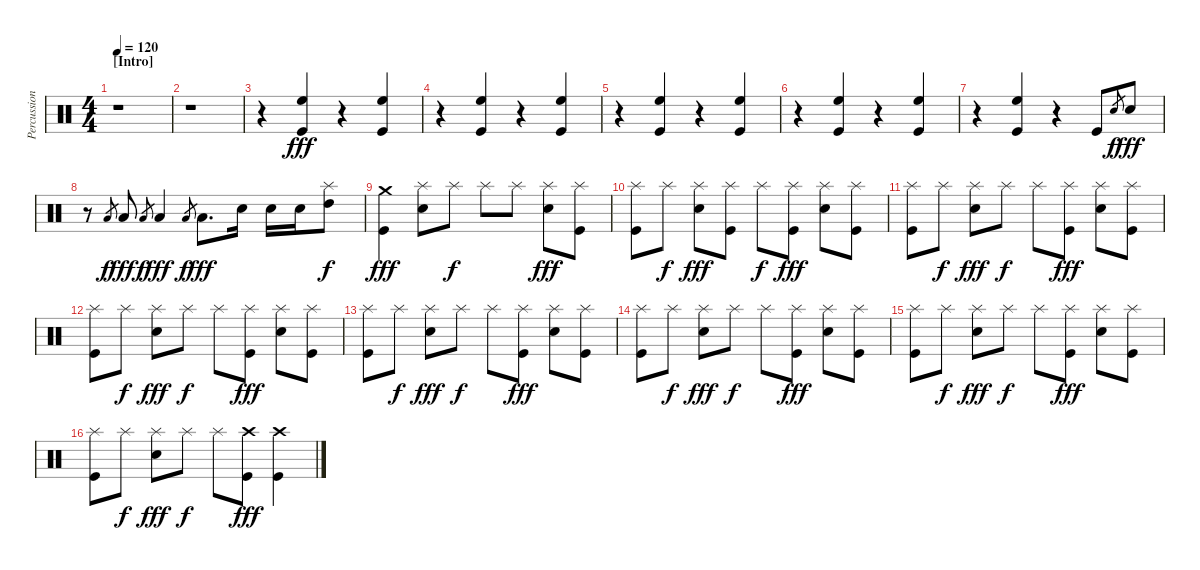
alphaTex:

\track ("Percussion" "Percussion") {instrument percussion}
\staff {score}
\articulation defaults
\ts (4 4)
\section ("" "[Intro]")
\tempo 120
\clef neutral
\ks c
r.1{dy fff} |
r.1 |
r.4 ("High Floor Tom (hit)" "Kick (hit)").4 r.4 ("High Floor Tom (hit)" "Kick (hit)").4 |
r.4 ("High Floor Tom (hit)" "Kick (hit)").4 r.4 ("High Floor Tom (hit)" "Kick (hit)").4 |
r.4 ("High Floor Tom (hit)" "Kick (hit)").4 r.4 ("High Floor Tom (hit)" "Kick (hit)").4 |
r.4 ("High Floor Tom (hit)" "Kick (hit)").4 r.4 ("High Floor Tom (hit)" "Kick (hit)").4 |
r.4 ("High Floor Tom (hit)" "Kick (hit)").4 r.4 "Kick (hit)".8 "Snare (hit) 2".8{gr dy f} "Snare (hit) 2".8{dy fff} |
r.8 "Low Tom (hit)".8{gr dy f} "Low Tom (hit)".8{dy fff} "Low Tom (hit)".8{gr dy f} "Low Tom (hit)".4{dy fff} "Low Tom (hit)".8{gr dy f} "Low Tom (hit)".8{d dy fff} "Snare (hit) 2".16 "Snare (hit) 2".16 "Snare (hit) 2".16 ("Splash (hit)" "High Tom (hit)").8{dy f} |
("Crash medium (hit)" "Kick (hit)").4{dy fff} ("Splash (hit)" "Snare (hit) 2").8 "Splash (hit)".8{dy f} "Splash (hit)".8 "Splash (hit)".8 ("Splash (hit)" "Snare (hit) 2").8{dy fff} ("Splash (hit)" "Kick (hit)").8 |
("Splash (hit)" "Kick (hit)").8 "Splash (hit)".8{dy f} ("Splash (hit)" "Snare (hit) 2").8{dy fff} ("Splash (hit)" "Kick (hit)").8 "Splash (hit)".8{dy f} ("Splash (hit)" "Kick (hit)").8{dy fff} ("Splash (hit)" "Snare (hit) 2").8 ("Splash (hit)" "Kick (hit)").8 |
("Splash (hit)" "Kick (hit)").8 "Splash (hit)".8{dy f} ("Splash (hit)" "Snare (hit) 2").8{dy fff} "Splash (hit)".8{dy f} "Splash (hit)".8 ("Splash (hit)" "Kick (hit)").8{dy fff} ("Splash (hit)" "Snare (hit) 2").8 ("Splash (hit)" "Kick (hit)").8 |
("Splash (hit)" "Kick (hit)").8 "Splash (hit)".8{dy f} ("Splash (hit)" "Snare (hit) 2").8{dy fff} "Splash (hit)".8{dy f} "Splash (hit)".8 ("Splash (hit)" "Kick (hit)").8{dy fff} ("Splash (hit)" "Snare (hit) 2").8 ("Splash (hit)" "Kick (hit)").8 |
("Splash (hit)" "Kick (hit)").8 "Splash (hit)".8{dy f} ("Splash (hit)" "Snare (hit) 2").8{dy fff} "Splash (hit)".8{dy f} "Splash (hit)".8 ("Splash (hit)" "Kick (hit)").8{dy fff} ("Splash (hit)" "Snare (hit) 2").8 ("Splash (hit)" "Kick (hit)").8 |
("Splash (hit)" "Kick (hit)").8 "Splash (hit)".8{dy f} ("Splash (hit)" "Snare (hit) 2").8{dy fff} "Splash (hit)".8{dy f} "Splash (hit)".8 ("Splash (hit)" "Kick (hit)").8{dy fff} ("Splash (hit)" "Snare (hit) 2").8 ("Splash (hit)" "Kick (hit)").8 |
("Splash (hit)" "Kick (hit)").8 "Splash (hit)".8{dy f} ("Splash (hit)" "Snare (hit) 2").8{dy fff} "Splash (hit)".8{dy f} "Splash (hit)".8 ("Splash (hit)" "Kick (hit)").8{dy fff} ("Splash (hit)" "Snare (hit) 2").8 ("Splash (hit)" "Kick (hit)").8 |
("Splash (hit)" "Kick (hit)").8 "Splash (hit)".8{dy f} ("Splash (hit)" "Snare (hit) 2").8{dy fff} "Splash (hit)".8{dy f} "Splash (hit)".8 ("Crash high (hit)" "Kick (hit)").8{dy fff} ("Crash high (hit)" "Kick (hit)").4
